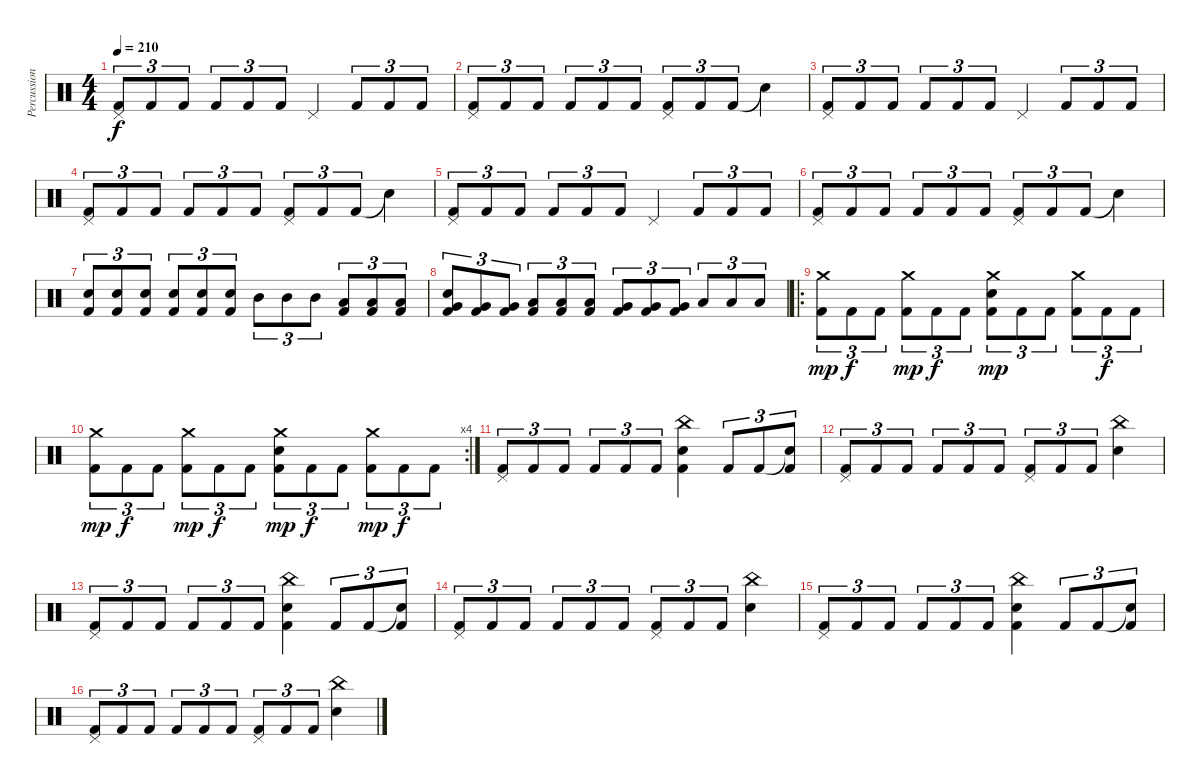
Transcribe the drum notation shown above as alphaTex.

\track ("Percussion" "Percussion") {instrument percussion}
\staff {score}
\articulation defaults
\ts (4 4)
\tempo 210
\clef neutral
\ks c
("Pedal Hi-Hat (hit)" "Kick (hit) 2").8{tu (3 2) dy f} "Kick (hit) 2".8{tu (3 2)} "Kick (hit) 2".8{tu (3 2)} "Kick (hit) 2".8{tu (3 2)} "Kick (hit) 2".8{tu (3 2)} "Kick (hit) 2".8{tu (3 2)} "Pedal Hi-Hat (hit)".4 "Kick (hit) 2".8{tu (3 2)} "Kick (hit) 2".8{tu (3 2)} "Kick (hit) 2".8{tu (3 2)} |
("Pedal Hi-Hat (hit)" "Kick (hit) 2").8{tu (3 2)} "Kick (hit) 2".8{tu (3 2)} "Kick (hit) 2".8{tu (3 2)} "Kick (hit) 2".8{tu (3 2)} "Kick (hit) 2".8{tu (3 2)} "Kick (hit) 2".8{tu (3 2)} ("Pedal Hi-Hat (hit)" "Kick (hit) 2").8{tu (3 2)} "Kick (hit) 2".8{tu (3 2)} "Kick (hit) 2".8{tu (3 2)} "Snare (hit)"{t}.4 |
("Pedal Hi-Hat (hit)" "Kick (hit) 2").8{tu (3 2)} "Kick (hit) 2".8{tu (3 2)} "Kick (hit) 2".8{tu (3 2)} "Kick (hit) 2".8{tu (3 2)} "Kick (hit) 2".8{tu (3 2)} "Kick (hit) 2".8{tu (3 2)} "Pedal Hi-Hat (hit)".4 "Kick (hit) 2".8{tu (3 2)} "Kick (hit) 2".8{tu (3 2)} "Kick (hit) 2".8{tu (3 2)} |
("Pedal Hi-Hat (hit)" "Kick (hit) 2").8{tu (3 2)} "Kick (hit) 2".8{tu (3 2)} "Kick (hit) 2".8{tu (3 2)} "Kick (hit) 2".8{tu (3 2)} "Kick (hit) 2".8{tu (3 2)} "Kick (hit) 2".8{tu (3 2)} ("Pedal Hi-Hat (hit)" "Kick (hit) 2").8{tu (3 2)} "Kick (hit) 2".8{tu (3 2)} "Kick (hit) 2".8{tu (3 2)} "Snare (hit)"{t}.4 |
("Pedal Hi-Hat (hit)" "Kick (hit) 2").8{tu (3 2)} "Kick (hit) 2".8{tu (3 2)} "Kick (hit) 2".8{tu (3 2)} "Kick (hit) 2".8{tu (3 2)} "Kick (hit) 2".8{tu (3 2)} "Kick (hit) 2".8{tu (3 2)} "Pedal Hi-Hat (hit)".4 "Kick (hit) 2".8{tu (3 2)} "Kick (hit) 2".8{tu (3 2)} "Kick (hit) 2".8{tu (3 2)} |
("Pedal Hi-Hat (hit)" "Kick (hit) 2").8{tu (3 2)} "Kick (hit) 2".8{tu (3 2)} "Kick (hit) 2".8{tu (3 2)} "Kick (hit) 2".8{tu (3 2)} "Kick (hit) 2".8{tu (3 2)} "Kick (hit) 2".8{tu (3 2)} ("Pedal Hi-Hat (hit)" "Kick (hit) 2").8{tu (3 2)} "Kick (hit) 2".8{tu (3 2)} "Kick (hit) 2".8{tu (3 2)} "Snare (hit)"{t}.4 |
("Electric Snare (hit)" "Kick (hit) 2").8{tu (3 2)} ("Electric Snare (hit)" "Kick (hit) 2").8{tu (3 2)} ("Electric Snare (hit)" "Kick (hit) 2").8{tu (3 2)} ("Electric Snare (hit)" "Kick (hit) 2").8{tu (3 2)} ("Electric Snare (hit)" "Kick (hit) 2").8{tu (3 2)} ("Electric Snare (hit)" "Kick (hit) 2").8{tu (3 2)} "Mid Tom (hit)".8{tu (3 2)} "Mid Tom (hit)".8{tu (3 2)} "Mid Tom (hit)".8{tu (3 2)} ("Low Tom (hit)" "Kick (hit) 2").8{tu (3 2)} ("Low Tom (hit)" "Kick (hit) 2").8{tu (3 2)} ("Low Tom (hit)" "Kick (hit) 2").8{tu (3 2)} |
("Electric Snare (hit)" "Very Low Tom (hit)" "Kick (hit) 2").8{tu (3 2)} ("Very Low Tom (hit)" "Kick (hit) 2").8{tu (3 2)} ("Very Low Tom (hit)" "Kick (hit) 2").8{tu (3 2)} ("Low Floor Tom (hit)" "Kick (hit) 2").8{tu (3 2)} ("Low Floor Tom (hit)" "Kick (hit) 2").8{tu (3 2)} ("Low Floor Tom (hit)" "Kick (hit) 2").8{tu (3 2)} ("Very Low Tom (hit)" "Kick (hit) 2").8{tu (3 2)} ("Very Low Tom (hit)" "Kick (hit) 2").8{tu (3 2)} ("Very Low Tom (hit)" "Kick (hit) 2").8{tu (3 2)} "Low Floor Tom (hit)".8{tu (3 2)} "Low Floor Tom (hit)".8{tu (3 2)} "Low Floor Tom (hit)".8{tu (3 2)} |
\ro
("Crash medium (hit)" "Kick (hit) 2").8{tu (3 2) dy mp} "Kick (hit) 2".8{tu (3 2) dy f} "Kick (hit) 2".8{tu (3 2)} ("Crash medium (hit)" "Kick (hit) 2").8{tu (3 2) dy mp} "Kick (hit) 2".8{tu (3 2) dy f} "Kick (hit) 2".8{tu (3 2)} ("Crash medium (hit)" "Electric Snare (hit)" "Kick (hit) 2").8{tu (3 2) dy mp} "Kick (hit) 2".8{tu (3 2)} "Kick (hit) 2".8{tu (3 2)} ("Crash medium (hit)" "Kick (hit) 2").8{tu (3 2)} "Kick (hit) 2".8{tu (3 2) dy f} "Kick (hit) 2".8{tu (3 2)} |
\rc 4
("Crash medium (hit)" "Kick (hit) 2").8{tu (3 2) dy mp} "Kick (hit) 2".8{tu (3 2) dy f} "Kick (hit) 2".8{tu (3 2)} ("Crash medium (hit)" "Kick (hit) 2").8{tu (3 2) dy mp} "Kick (hit) 2".8{tu (3 2) dy f} "Kick (hit) 2".8{tu (3 2)} ("Crash medium (hit)" "Electric Snare (hit)" "Kick (hit) 2").8{tu (3 2) dy mp} "Kick (hit) 2".8{tu (3 2) dy f} "Kick (hit) 2".8{tu (3 2)} ("Crash medium (hit)" "Kick (hit) 2").8{tu (3 2) dy mp} "Kick (hit) 2".8{tu (3 2) dy f} "Kick (hit) 2".8{tu (3 2)} |
("Pedal Hi-Hat (hit)" "Kick (hit) 2").8{tu (3 2)} "Kick (hit) 2".8{tu (3 2)} "Kick (hit) 2".8{tu (3 2)} "Kick (hit) 2".8{tu (3 2)} "Kick (hit) 2".8{tu (3 2)} "Kick (hit) 2".8{tu (3 2)} ("China (hit)" "Electric Snare (hit)" "Kick (hit) 2").4 "Kick (hit) 2".8{tu (3 2)} "Kick (hit) 2".8{tu (3 2)} ("Snare (hit)"{t} "Kick (hit) 2").8{tu (3 2)} |
("Pedal Hi-Hat (hit)" "Kick (hit) 2").8{tu (3 2)} "Kick (hit) 2".8{tu (3 2)} "Kick (hit) 2".8{tu (3 2)} "Kick (hit) 2".8{tu (3 2)} "Kick (hit) 2".8{tu (3 2)} "Kick (hit) 2".8{tu (3 2)} ("Pedal Hi-Hat (hit)" "Kick (hit) 2").8{tu (3 2)} "Kick (hit) 2".8{tu (3 2)} "Kick (hit) 2".8{tu (3 2)} ("China (hit)" "Electric Snare (hit)").4 |
("Pedal Hi-Hat (hit)" "Kick (hit) 2").8{tu (3 2)} "Kick (hit) 2".8{tu (3 2)} "Kick (hit) 2".8{tu (3 2)} "Kick (hit) 2".8{tu (3 2)} "Kick (hit) 2".8{tu (3 2)} "Kick (hit) 2".8{tu (3 2)} ("China (hit)" "Electric Snare (hit)" "Kick (hit) 2").4 "Kick (hit) 2".8{tu (3 2)} "Kick (hit) 2".8{tu (3 2)} ("Snare (hit)"{t} "Kick (hit) 2").8{tu (3 2)} |
("Pedal Hi-Hat (hit)" "Kick (hit) 2").8{tu (3 2)} "Kick (hit) 2".8{tu (3 2)} "Kick (hit) 2".8{tu (3 2)} "Kick (hit) 2".8{tu (3 2)} "Kick (hit) 2".8{tu (3 2)} "Kick (hit) 2".8{tu (3 2)} ("Pedal Hi-Hat (hit)" "Kick (hit) 2").8{tu (3 2)} "Kick (hit) 2".8{tu (3 2)} "Kick (hit) 2".8{tu (3 2)} ("China (hit)" "Electric Snare (hit)").4 |
("Pedal Hi-Hat (hit)" "Kick (hit) 2").8{tu (3 2)} "Kick (hit) 2".8{tu (3 2)} "Kick (hit) 2".8{tu (3 2)} "Kick (hit) 2".8{tu (3 2)} "Kick (hit) 2".8{tu (3 2)} "Kick (hit) 2".8{tu (3 2)} ("China (hit)" "Electric Snare (hit)" "Kick (hit) 2").4 "Kick (hit) 2".8{tu (3 2)} "Kick (hit) 2".8{tu (3 2)} ("Snare (hit)"{t} "Kick (hit) 2").8{tu (3 2)} |
("Pedal Hi-Hat (hit)" "Kick (hit) 2").8{tu (3 2)} "Kick (hit) 2".8{tu (3 2)} "Kick (hit) 2".8{tu (3 2)} "Kick (hit) 2".8{tu (3 2)} "Kick (hit) 2".8{tu (3 2)} "Kick (hit) 2".8{tu (3 2)} ("Pedal Hi-Hat (hit)" "Kick (hit) 2").8{tu (3 2)} "Kick (hit) 2".8{tu (3 2)} "Kick (hit) 2".8{tu (3 2)} ("China (hit)" "Electric Snare (hit)").4
